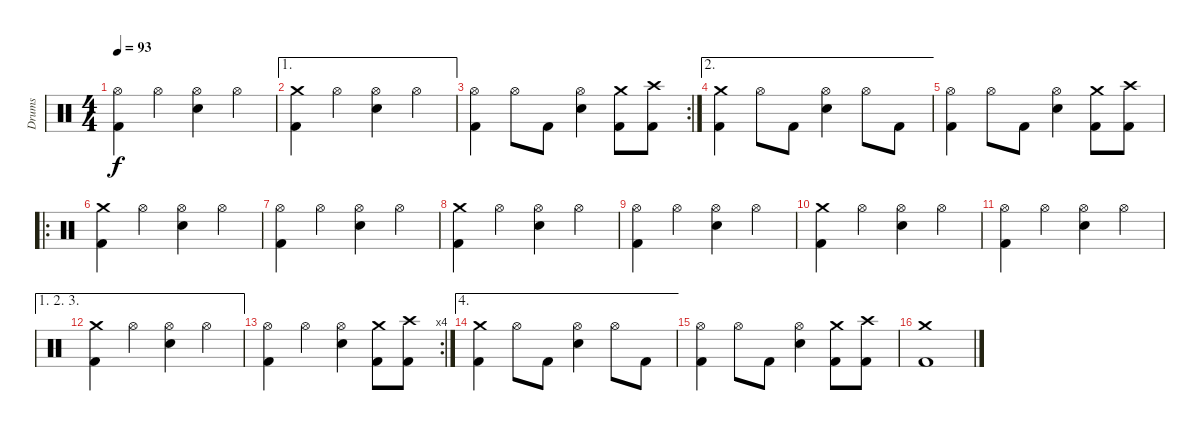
\track ("Drums" "Drums") {instrument percussion}
\staff {score}
\articulation defaults
\ts (4 4)
\tempo 93
\clef neutral
\ks c
("Hi-Hat (open)" "Kick (hit) 2").4{dy f} "Hi-Hat (open)".4 ("Hi-Hat (open)" "Electric Snare (hit)").4 "Hi-Hat (open)".4 |
\ae 1
("Crash medium (hit)" "Kick (hit) 2").4 "Hi-Hat (open)".4 ("Hi-Hat (open)" "Electric Snare (hit)").4 "Hi-Hat (open)".4 |
\rc 2
("Hi-Hat (open)" "Kick (hit) 2").4 "Hi-Hat (open)".8 "Kick (hit) 2".8 ("Hi-Hat (open)" "Electric Snare (hit)").4 ("Crash medium (hit)" "Kick (hit) 2").8 ("Crash high (hit)" "Kick (hit) 2").8 |
\ae 2
("Crash medium (hit)" "Kick (hit) 2").4 "Hi-Hat (open)".8 "Kick (hit) 2".8 ("Hi-Hat (open)" "Electric Snare (hit)").4 "Hi-Hat (open)".8 "Kick (hit) 2".8 |
("Hi-Hat (open)" "Kick (hit) 2").4 "Hi-Hat (open)".8 "Kick (hit) 2".8 ("Hi-Hat (open)" "Electric Snare (hit)").4 ("Crash medium (hit)" "Kick (hit) 2").8 ("Crash high (hit)" "Kick (hit) 2").8 |
\ro
("Crash medium (hit)" "Kick (hit) 2").4 "Hi-Hat (open)".4 ("Hi-Hat (open)" "Electric Snare (hit)").4 "Hi-Hat (open)".4 |
("Hi-Hat (open)" "Kick (hit) 2").4 "Hi-Hat (open)".4 ("Hi-Hat (open)" "Electric Snare (hit)").4 "Hi-Hat (open)".4 |
("Crash medium (hit)" "Kick (hit) 2").4 "Hi-Hat (open)".4 ("Hi-Hat (open)" "Electric Snare (hit)").4 "Hi-Hat (open)".4 |
("Hi-Hat (open)" "Kick (hit) 2").4 "Hi-Hat (open)".4 ("Hi-Hat (open)" "Electric Snare (hit)").4 "Hi-Hat (open)".4 |
("Crash medium (hit)" "Kick (hit) 2").4 "Hi-Hat (open)".4 ("Hi-Hat (open)" "Electric Snare (hit)").4 "Hi-Hat (open)".4 |
("Hi-Hat (open)" "Kick (hit) 2").4 "Hi-Hat (open)".4 ("Hi-Hat (open)" "Electric Snare (hit)").4 "Hi-Hat (open)".4 |
\ae (1 2 3)
("Crash medium (hit)" "Kick (hit) 2").4 "Hi-Hat (open)".4 ("Hi-Hat (open)" "Electric Snare (hit)").4 "Hi-Hat (open)".4 |
\rc 4
("Hi-Hat (open)" "Kick (hit) 2").4 "Hi-Hat (open)".4 ("Hi-Hat (open)" "Electric Snare (hit)").4 ("Crash medium (hit)" "Kick (hit) 2").8 ("Crash high (hit)" "Kick (hit) 2").8 |
\ae 4
("Crash medium (hit)" "Kick (hit) 2").4 "Hi-Hat (open)".8 "Kick (hit) 2".8 ("Hi-Hat (open)" "Electric Snare (hit)").4 "Hi-Hat (open)".8 "Kick (hit) 2".8 |
("Hi-Hat (open)" "Kick (hit) 2").4 "Hi-Hat (open)".8 "Kick (hit) 2".8 ("Hi-Hat (open)" "Electric Snare (hit)").4 ("Crash medium (hit)" "Kick (hit) 2").8 ("Crash high (hit)" "Kick (hit) 2").8 |
("Crash medium (hit)" "Kick (hit) 2").1
